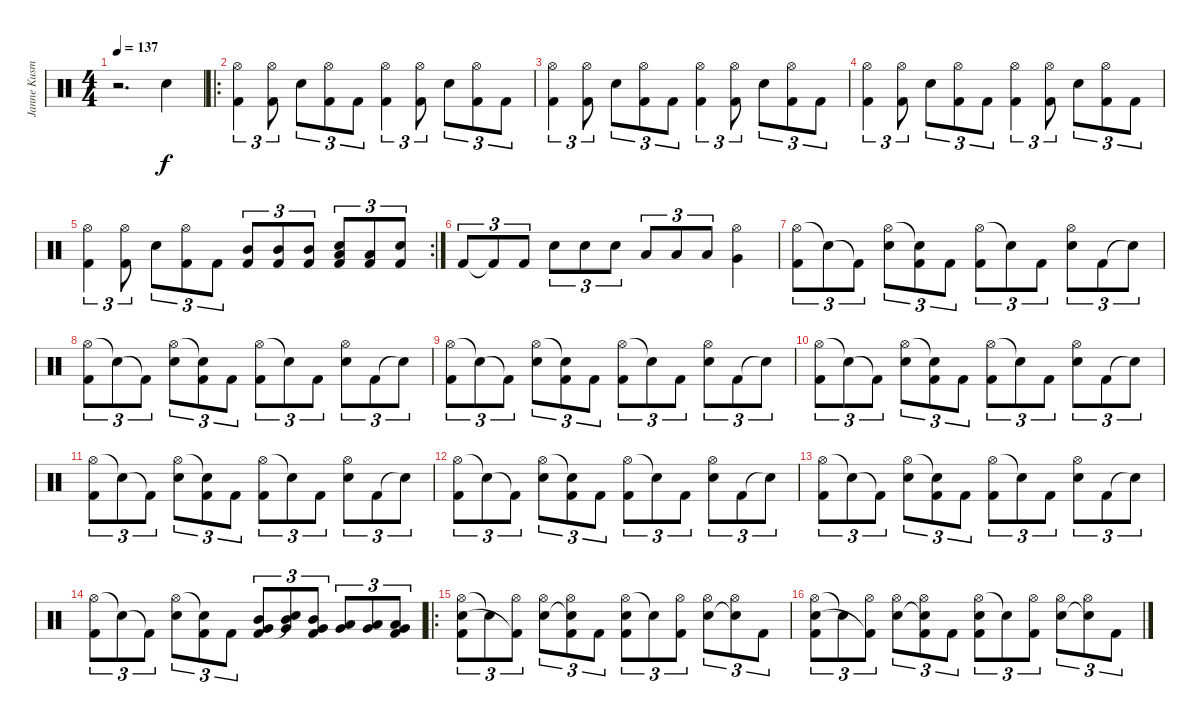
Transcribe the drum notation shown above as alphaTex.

\track ("Janne Kusmin" "Janne Kusm") {instrument percussion}
\staff {score}
\articulation defaults
\ts (4 4)
\tempo 137
\clef neutral
\ks c
r.2{d dy f} "Electric Snare (hit)".4 |
\ro
("Hi-Hat (open)" "Kick (hit) 2").4{tu (3 2)} ("Hi-Hat (open)" "Kick (hit) 2").8{tu (3 2)} "Electric Snare (hit)".8{tu (3 2)} ("Hi-Hat (open)" "Kick (hit) 2").8{tu (3 2)} "Kick (hit) 2".8{tu (3 2)} ("Hi-Hat (open)" "Kick (hit) 2").4{tu (3 2)} ("Hi-Hat (open)" "Kick (hit) 2").8{tu (3 2)} "Electric Snare (hit)".8{tu (3 2)} ("Hi-Hat (open)" "Kick (hit) 2").8{tu (3 2)} "Kick (hit) 2".8{tu (3 2)} |
("Hi-Hat (open)" "Kick (hit) 2").4{tu (3 2)} ("Hi-Hat (open)" "Kick (hit) 2").8{tu (3 2)} "Electric Snare (hit)".8{tu (3 2)} ("Hi-Hat (open)" "Kick (hit) 2").8{tu (3 2)} "Kick (hit) 2".8{tu (3 2)} ("Hi-Hat (open)" "Kick (hit) 2").4{tu (3 2)} ("Hi-Hat (open)" "Kick (hit) 2").8{tu (3 2)} "Electric Snare (hit)".8{tu (3 2)} ("Hi-Hat (open)" "Kick (hit) 2").8{tu (3 2)} "Kick (hit) 2".8{tu (3 2)} |
("Hi-Hat (open)" "Kick (hit) 2").4{tu (3 2)} ("Hi-Hat (open)" "Kick (hit) 2").8{tu (3 2)} "Electric Snare (hit)".8{tu (3 2)} ("Hi-Hat (open)" "Kick (hit) 2").8{tu (3 2)} "Kick (hit) 2".8{tu (3 2)} ("Hi-Hat (open)" "Kick (hit) 2").4{tu (3 2)} ("Hi-Hat (open)" "Kick (hit) 2").8{tu (3 2)} "Electric Snare (hit)".8{tu (3 2)} ("Hi-Hat (open)" "Kick (hit) 2").8{tu (3 2)} "Kick (hit) 2".8{tu (3 2)} |
\rc 2
("Hi-Hat (open)" "Kick (hit) 2").4{tu (3 2)} ("Hi-Hat (open)" "Kick (hit) 2").8{tu (3 2)} "Electric Snare (hit)".8{tu (3 2)} ("Hi-Hat (open)" "Kick (hit) 2").8{tu (3 2)} "Kick (hit) 2".8{tu (3 2)} ("Mid Tom (hit)" "Kick (hit) 2").8{tu (3 2)} ("Mid Tom (hit)" "Kick (hit) 2").8{tu (3 2)} ("Mid Tom (hit)" "Kick (hit) 2").8{tu (3 2)} ("Low Tom (hit)" "Electric Snare (hit)" "Kick (hit) 2").8{tu (3 2)} ("Low Tom (hit)" "Kick (hit) 2").8{tu (3 2)} ("Electric Snare (hit)" "Kick (hit) 2").8{tu (3 2)} |
"Kick (hit) 2".8{tu (3 2)} "Kick (hit) 2"{t}.8{tu (3 2)} "Kick (hit) 2".8{tu (3 2)} "Electric Snare (hit)".8{tu (3 2)} "Electric Snare (hit)".8{tu (3 2)} "Electric Snare (hit)".8{tu (3 2)} "Low Tom (hit)".8{tu (3 2)} "Low Tom (hit)".8{tu (3 2)} "Low Tom (hit)".8{tu (3 2)} ("Hi-Hat (open)" "Very Low Tom (hit)").4 |
("Hi-Hat (open)" "Kick (hit) 2").8{tu (3 2)} "Snare (hit)"{t}.8{tu (3 2)} "Kick (hit) 2"{t}.8{tu (3 2)} ("Hi-Hat (open)" "Electric Snare (hit)").8{tu (3 2)} ("Snare (hit)"{t} "Kick (hit) 2").8{tu (3 2)} "Kick (hit) 2".8{tu (3 2)} ("Hi-Hat (open)" "Kick (hit) 2").8{tu (3 2)} "Snare (hit)"{t}.8{tu (3 2)} "Kick (hit) 2".8{tu (3 2)} ("Hi-Hat (open)" "Electric Snare (hit)").8{tu (3 2)} "Kick (hit) 2".8{tu (3 2)} "Snare (hit)"{t}.8{tu (3 2)} |
("Hi-Hat (open)" "Kick (hit) 2").8{tu (3 2)} "Snare (hit)"{t}.8{tu (3 2)} "Kick (hit) 2"{t}.8{tu (3 2)} ("Hi-Hat (open)" "Electric Snare (hit)").8{tu (3 2)} ("Snare (hit)"{t} "Kick (hit) 2").8{tu (3 2)} "Kick (hit) 2".8{tu (3 2)} ("Hi-Hat (open)" "Kick (hit) 2").8{tu (3 2)} "Snare (hit)"{t}.8{tu (3 2)} "Kick (hit) 2".8{tu (3 2)} ("Hi-Hat (open)" "Electric Snare (hit)").8{tu (3 2)} "Kick (hit) 2".8{tu (3 2)} "Snare (hit)"{t}.8{tu (3 2)} |
("Hi-Hat (open)" "Kick (hit) 2").8{tu (3 2)} "Snare (hit)"{t}.8{tu (3 2)} "Kick (hit) 2"{t}.8{tu (3 2)} ("Hi-Hat (open)" "Electric Snare (hit)").8{tu (3 2)} ("Snare (hit)"{t} "Kick (hit) 2").8{tu (3 2)} "Kick (hit) 2".8{tu (3 2)} ("Hi-Hat (open)" "Kick (hit) 2").8{tu (3 2)} "Snare (hit)"{t}.8{tu (3 2)} "Kick (hit) 2".8{tu (3 2)} ("Hi-Hat (open)" "Electric Snare (hit)").8{tu (3 2)} "Kick (hit) 2".8{tu (3 2)} "Snare (hit)"{t}.8{tu (3 2)} |
("Hi-Hat (open)" "Kick (hit) 2").8{tu (3 2)} "Snare (hit)"{t}.8{tu (3 2)} "Kick (hit) 2"{t}.8{tu (3 2)} ("Hi-Hat (open)" "Electric Snare (hit)").8{tu (3 2)} ("Snare (hit)"{t} "Kick (hit) 2").8{tu (3 2)} "Kick (hit) 2".8{tu (3 2)} ("Hi-Hat (open)" "Kick (hit) 2").8{tu (3 2)} "Snare (hit)"{t}.8{tu (3 2)} "Kick (hit) 2".8{tu (3 2)} ("Hi-Hat (open)" "Electric Snare (hit)").8{tu (3 2)} "Kick (hit) 2".8{tu (3 2)} "Snare (hit)"{t}.8{tu (3 2)} |
("Hi-Hat (open)" "Kick (hit) 2").8{tu (3 2)} "Snare (hit)"{t}.8{tu (3 2)} "Kick (hit) 2"{t}.8{tu (3 2)} ("Hi-Hat (open)" "Electric Snare (hit)").8{tu (3 2)} ("Snare (hit)"{t} "Kick (hit) 2").8{tu (3 2)} "Kick (hit) 2".8{tu (3 2)} ("Hi-Hat (open)" "Kick (hit) 2").8{tu (3 2)} "Snare (hit)"{t}.8{tu (3 2)} "Kick (hit) 2".8{tu (3 2)} ("Hi-Hat (open)" "Electric Snare (hit)").8{tu (3 2)} "Kick (hit) 2".8{tu (3 2)} "Snare (hit)"{t}.8{tu (3 2)} |
("Hi-Hat (open)" "Kick (hit) 2").8{tu (3 2)} "Snare (hit)"{t}.8{tu (3 2)} "Kick (hit) 2"{t}.8{tu (3 2)} ("Hi-Hat (open)" "Electric Snare (hit)").8{tu (3 2)} ("Snare (hit)"{t} "Kick (hit) 2").8{tu (3 2)} "Kick (hit) 2".8{tu (3 2)} ("Hi-Hat (open)" "Kick (hit) 2").8{tu (3 2)} "Snare (hit)"{t}.8{tu (3 2)} "Kick (hit) 2".8{tu (3 2)} ("Hi-Hat (open)" "Electric Snare (hit)").8{tu (3 2)} "Kick (hit) 2".8{tu (3 2)} "Snare (hit)"{t}.8{tu (3 2)} |
("Hi-Hat (open)" "Kick (hit) 2").8{tu (3 2)} "Snare (hit)"{t}.8{tu (3 2)} "Kick (hit) 2"{t}.8{tu (3 2)} ("Hi-Hat (open)" "Electric Snare (hit)").8{tu (3 2)} ("Snare (hit)"{t} "Kick (hit) 2").8{tu (3 2)} "Kick (hit) 2".8{tu (3 2)} ("Hi-Hat (open)" "Kick (hit) 2").8{tu (3 2)} "Snare (hit)"{t}.8{tu (3 2)} "Kick (hit) 2".8{tu (3 2)} ("Hi-Hat (open)" "Electric Snare (hit)").8{tu (3 2)} "Kick (hit) 2".8{tu (3 2)} "Snare (hit)"{t}.8{tu (3 2)} |
("Hi-Hat (open)" "Kick (hit) 2").8{tu (3 2)} "Snare (hit)"{t}.8{tu (3 2)} "Kick (hit) 2"{t}.8{tu (3 2)} ("Hi-Hat (open)" "Electric Snare (hit)").8{tu (3 2)} ("Snare (hit)"{t} "Kick (hit) 2").8{tu (3 2)} "Kick (hit) 2".8{tu (3 2)} ("Mid Tom (hit)" "Very Low Tom (hit)" "Kick (hit) 2").8{tu (3 2)} ("Mid Tom (hit)" "Very Low Tom (hit)" "Snare (hit)"{t}).8{tu (3 2)} ("Mid Tom (hit)" "Very Low Tom (hit)" "Kick (hit) 2").8{tu (3 2)} ("Low Tom (hit)" "Very Low Tom (hit)").8{tu (3 2)} ("Low Tom (hit)" "Very Low Tom (hit)").8{tu (3 2)} ("Low Tom (hit)" "Very Low Tom (hit)" "Kick (hit) 2").8{tu (3 2)} |
\ro
("Hi-Hat (open)" "Electric Snare (hit)" "Kick (hit) 2").8{tu (3 2)} "Snare (hit)"{t}.8{tu (3 2)} ("Hi-Hat (open)" "Kick (hit) 2"{t}).8{tu (3 2)} ("Hi-Hat (open)" "Electric Snare (hit)").8{tu (3 2)} ("Hi-Hat (open)" "Snare (hit)"{t} "Kick (hit) 2").8{tu (3 2)} "Kick (hit) 2".8{tu (3 2)} ("Hi-Hat (open)" "Electric Snare (hit)" "Kick (hit) 2").8{tu (3 2)} "Snare (hit)"{t}.8{tu (3 2)} ("Hi-Hat (open)" "Kick (hit) 2").8{tu (3 2)} ("Hi-Hat (open)" "Electric Snare (hit)").8{tu (3 2)} ("Hi-Hat (open)" "Snare (hit)"{t}).8{tu (3 2)} "Kick (hit) 2".8{tu (3 2)} |
("Hi-Hat (open)" "Electric Snare (hit)" "Kick (hit) 2").8{tu (3 2)} "Snare (hit)"{t}.8{tu (3 2)} ("Hi-Hat (open)" "Kick (hit) 2"{t}).8{tu (3 2)} ("Hi-Hat (open)" "Electric Snare (hit)").8{tu (3 2)} ("Hi-Hat (open)" "Snare (hit)"{t} "Kick (hit) 2").8{tu (3 2)} "Kick (hit) 2".8{tu (3 2)} ("Hi-Hat (open)" "Electric Snare (hit)" "Kick (hit) 2").8{tu (3 2)} "Snare (hit)"{t}.8{tu (3 2)} ("Hi-Hat (open)" "Kick (hit) 2").8{tu (3 2)} ("Hi-Hat (open)" "Electric Snare (hit)").8{tu (3 2)} ("Hi-Hat (open)" "Snare (hit)"{t}).8{tu (3 2)} "Kick (hit) 2".8{tu (3 2)}
